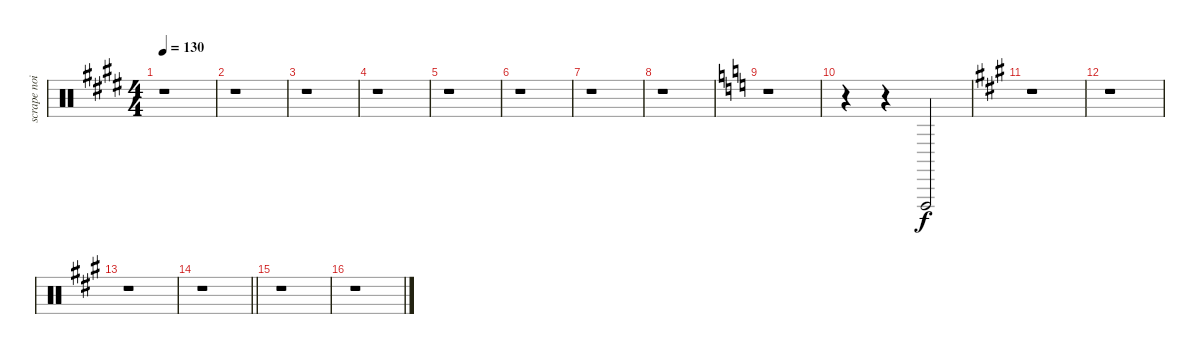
\track ("scrape noise" "scrape noi") {instrument percussion}
\staff {score}
\articulation defaults
\ts (4 4)
\tempo 130
\clef neutral
\ks e
r.1{dy f} |
\ks c#minor
r.1 |
r.1 |
r.1 |
\ks e
r.1 |
\ks c#minor
r.1 |
r.1 |
r.1 |
\ks c
r.1 |
r.4 r.4 "Vibraslap (hit)".2 |
\ks a
r.1 |
r.1 |
r.1 |
\barLineRight lightlight
r.1 |
r.1 |
r.1
